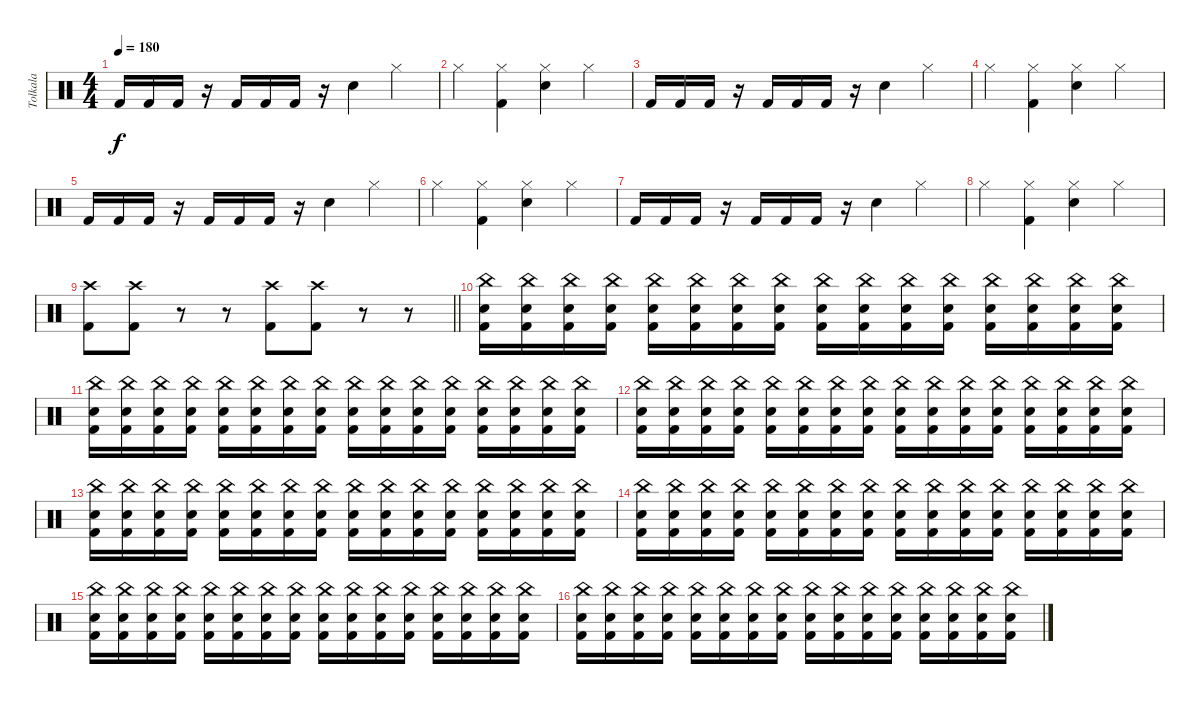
\track ("Tolkala" "Tolkala") {instrument percussion}
\staff {score}
\articulation defaults
\ts (4 4)
\section ("" "")
\tempo 180
\clef neutral
\ks c "Kick (hit) 2".16{dy f} "Kick (hit) 2".16 "Kick (hit) 2".16
r.16 "Kick (hit) 2".16 "Kick (hit) 2".16 "Kick (hit) 2".16 r.16 "Electric Snare (hit)".4 "Hi-Hat (closed)".4 |
"Hi-Hat (closed)".4 ("Hi-Hat (closed)" "Kick (hit) 2").4 ("Hi-Hat (closed)" "Electric Snare (hit)").4 "Hi-Hat (closed)".4 |
"Kick (hit) 2".16 "Kick (hit) 2".16 "Kick (hit) 2".16 r.16 "Kick (hit) 2".16 "Kick (hit) 2".16 "Kick (hit) 2".16 r.16 "Electric Snare (hit)".4 "Hi-Hat (closed)".4 |
"Hi-Hat (closed)".4 ("Hi-Hat (closed)" "Kick (hit) 2").4 ("Hi-Hat (closed)" "Electric Snare (hit)").4 "Hi-Hat (closed)".4 |
"Kick (hit) 2".16 "Kick (hit) 2".16 "Kick (hit) 2".16 r.16 "Kick (hit) 2".16 "Kick (hit) 2".16 "Kick (hit) 2".16 r.16 "Electric Snare (hit)".4 "Hi-Hat (closed)".4 |
"Hi-Hat (closed)".4 ("Hi-Hat (closed)" "Kick (hit) 2").4 ("Hi-Hat (closed)" "Electric Snare (hit)").4 "Hi-Hat (closed)".4 |
"Kick (hit) 2".16 "Kick (hit) 2".16 "Kick (hit) 2".16 r.16 "Kick (hit) 2".16 "Kick (hit) 2".16 "Kick (hit) 2".16 r.16 "Electric Snare (hit)".4 "Hi-Hat (closed)".4 |
"Hi-Hat (closed)".4 ("Hi-Hat (closed)" "Kick (hit) 2").4 ("Hi-Hat (closed)" "Electric Snare (hit)").4 "Hi-Hat (closed)".4 |
\barLineRight lightlight
("Crash high (hit)" "Kick (hit) 2").8 ("Crash high (hit)" "Kick (hit) 2").8 r.8 r.8 ("Crash high (hit)" "Kick (hit) 2").8 ("Crash high (hit)" "Kick (hit) 2").8 r.8 r.8 |
\section ("" "")
("Electric Snare (hit)" "China (hit)" "Kick (hit) 2").16 ("Electric Snare (hit)" "China (hit)" "Kick (hit) 2").16 ("Electric Snare (hit)" "China (hit)" "Kick (hit) 2").16 ("Electric Snare (hit)" "China (hit)" "Kick (hit) 2").16 ("Electric Snare (hit)" "China (hit)" "Kick (hit) 2").16 ("Electric Snare (hit)" "China (hit)" "Kick (hit) 2").16 ("Electric Snare (hit)" "China (hit)" "Kick (hit) 2").16 ("Electric Snare (hit)" "China (hit)" "Kick (hit) 2").16 ("Electric Snare (hit)" "China (hit)" "Kick (hit) 2").16 ("Electric Snare (hit)" "China (hit)" "Kick (hit) 2").16 ("Electric Snare (hit)" "China (hit)" "Kick (hit) 2").16 ("Electric Snare (hit)" "China (hit)" "Kick (hit) 2").16 ("Electric Snare (hit)" "China (hit)" "Kick (hit) 2").16 ("Electric Snare (hit)" "China (hit)" "Kick (hit) 2").16 ("Electric Snare (hit)" "China (hit)" "Kick (hit) 2").16 ("Electric Snare (hit)" "China (hit)" "Kick (hit) 2").16 |
("Electric Snare (hit)" "China (hit)" "Kick (hit) 2").16 ("Electric Snare (hit)" "China (hit)" "Kick (hit) 2").16 ("Electric Snare (hit)" "China (hit)" "Kick (hit) 2").16 ("Electric Snare (hit)" "China (hit)" "Kick (hit) 2").16 ("Electric Snare (hit)" "China (hit)" "Kick (hit) 2").16 ("Electric Snare (hit)" "China (hit)" "Kick (hit) 2").16 ("Electric Snare (hit)" "China (hit)" "Kick (hit) 2").16 ("Electric Snare (hit)" "China (hit)" "Kick (hit) 2").16 ("Electric Snare (hit)" "China (hit)" "Kick (hit) 2").16 ("Electric Snare (hit)" "China (hit)" "Kick (hit) 2").16 ("Electric Snare (hit)" "China (hit)" "Kick (hit) 2").16 ("Electric Snare (hit)" "China (hit)" "Kick (hit) 2").16 ("Electric Snare (hit)" "China (hit)" "Kick (hit) 2").16 ("Electric Snare (hit)" "China (hit)" "Kick (hit) 2").16 ("Electric Snare (hit)" "China (hit)" "Kick (hit) 2").16 ("Electric Snare (hit)" "China (hit)" "Kick (hit) 2").16 |
("Electric Snare (hit)" "China (hit)" "Kick (hit) 2").16 ("Electric Snare (hit)" "China (hit)" "Kick (hit) 2").16 ("Electric Snare (hit)" "China (hit)" "Kick (hit) 2").16 ("Electric Snare (hit)" "China (hit)" "Kick (hit) 2").16 ("Electric Snare (hit)" "China (hit)" "Kick (hit) 2").16 ("Electric Snare (hit)" "China (hit)" "Kick (hit) 2").16 ("Electric Snare (hit)" "China (hit)" "Kick (hit) 2").16 ("Electric Snare (hit)" "China (hit)" "Kick (hit) 2").16 ("Electric Snare (hit)" "China (hit)" "Kick (hit) 2").16 ("Electric Snare (hit)" "China (hit)" "Kick (hit) 2").16 ("Electric Snare (hit)" "China (hit)" "Kick (hit) 2").16 ("Electric Snare (hit)" "China (hit)" "Kick (hit) 2").16 ("Electric Snare (hit)" "China (hit)" "Kick (hit) 2").16 ("Electric Snare (hit)" "China (hit)" "Kick (hit) 2").16 ("Electric Snare (hit)" "China (hit)" "Kick (hit) 2").16 ("Electric Snare (hit)" "China (hit)" "Kick (hit) 2").16 |
("Electric Snare (hit)" "China (hit)" "Kick (hit) 2").16 ("Electric Snare (hit)" "China (hit)" "Kick (hit) 2").16 ("Electric Snare (hit)" "China (hit)" "Kick (hit) 2").16 ("Electric Snare (hit)" "China (hit)" "Kick (hit) 2").16 ("Electric Snare (hit)" "China (hit)" "Kick (hit) 2").16 ("Electric Snare (hit)" "China (hit)" "Kick (hit) 2").16 ("Electric Snare (hit)" "China (hit)" "Kick (hit) 2").16 ("Electric Snare (hit)" "China (hit)" "Kick (hit) 2").16 ("Electric Snare (hit)" "China (hit)" "Kick (hit) 2").16 ("Electric Snare (hit)" "China (hit)" "Kick (hit) 2").16 ("Electric Snare (hit)" "China (hit)" "Kick (hit) 2").16 ("Electric Snare (hit)" "China (hit)" "Kick (hit) 2").16 ("Electric Snare (hit)" "China (hit)" "Kick (hit) 2").16 ("Electric Snare (hit)" "China (hit)" "Kick (hit) 2").16 ("Electric Snare (hit)" "China (hit)" "Kick (hit) 2").16 ("Electric Snare (hit)" "China (hit)" "Kick (hit) 2").16 |
("Electric Snare (hit)" "China (hit)" "Kick (hit) 2").16 ("Electric Snare (hit)" "China (hit)" "Kick (hit) 2").16 ("Electric Snare (hit)" "China (hit)" "Kick (hit) 2").16 ("Electric Snare (hit)" "China (hit)" "Kick (hit) 2").16 ("Electric Snare (hit)" "China (hit)" "Kick (hit) 2").16 ("Electric Snare (hit)" "China (hit)" "Kick (hit) 2").16 ("Electric Snare (hit)" "China (hit)" "Kick (hit) 2").16 ("Electric Snare (hit)" "China (hit)" "Kick (hit) 2").16 ("Electric Snare (hit)" "China (hit)" "Kick (hit) 2").16 ("Electric Snare (hit)" "China (hit)" "Kick (hit) 2").16 ("Electric Snare (hit)" "China (hit)" "Kick (hit) 2").16 ("Electric Snare (hit)" "China (hit)" "Kick (hit) 2").16 ("Electric Snare (hit)" "China (hit)" "Kick (hit) 2").16 ("Electric Snare (hit)" "China (hit)" "Kick (hit) 2").16 ("Electric Snare (hit)" "China (hit)" "Kick (hit) 2").16 ("Electric Snare (hit)" "China (hit)" "Kick (hit) 2").16 |
("Electric Snare (hit)" "China (hit)" "Kick (hit) 2").16 ("Electric Snare (hit)" "China (hit)" "Kick (hit) 2").16 ("Electric Snare (hit)" "China (hit)" "Kick (hit) 2").16 ("Electric Snare (hit)" "China (hit)" "Kick (hit) 2").16 ("Electric Snare (hit)" "China (hit)" "Kick (hit) 2").16 ("Electric Snare (hit)" "China (hit)" "Kick (hit) 2").16 ("Electric Snare (hit)" "China (hit)" "Kick (hit) 2").16 ("Electric Snare (hit)" "China (hit)" "Kick (hit) 2").16 ("Electric Snare (hit)" "China (hit)" "Kick (hit) 2").16 ("Electric Snare (hit)" "China (hit)" "Kick (hit) 2").16 ("Electric Snare (hit)" "China (hit)" "Kick (hit) 2").16 ("Electric Snare (hit)" "China (hit)" "Kick (hit) 2").16 ("Electric Snare (hit)" "China (hit)" "Kick (hit) 2").16 ("Electric Snare (hit)" "China (hit)" "Kick (hit) 2").16 ("Electric Snare (hit)" "China (hit)" "Kick (hit) 2").16 ("Electric Snare (hit)" "China (hit)" "Kick (hit) 2").16 |
("Electric Snare (hit)" "China (hit)" "Kick (hit) 2").16 ("Electric Snare (hit)" "China (hit)" "Kick (hit) 2").16 ("Electric Snare (hit)" "China (hit)" "Kick (hit) 2").16 ("Electric Snare (hit)" "China (hit)" "Kick (hit) 2").16 ("Electric Snare (hit)" "China (hit)" "Kick (hit) 2").16 ("Electric Snare (hit)" "China (hit)" "Kick (hit) 2").16 ("Electric Snare (hit)" "China (hit)" "Kick (hit) 2").16 ("Electric Snare (hit)" "China (hit)" "Kick (hit) 2").16 ("Electric Snare (hit)" "China (hit)" "Kick (hit) 2").16 ("Electric Snare (hit)" "China (hit)" "Kick (hit) 2").16 ("Electric Snare (hit)" "China (hit)" "Kick (hit) 2").16 ("Electric Snare (hit)" "China (hit)" "Kick (hit) 2").16 ("Electric Snare (hit)" "China (hit)" "Kick (hit) 2").16 ("Electric Snare (hit)" "China (hit)" "Kick (hit) 2").16 ("Electric Snare (hit)" "China (hit)" "Kick (hit) 2").16 ("Electric Snare (hit)" "China (hit)" "Kick (hit) 2").16
